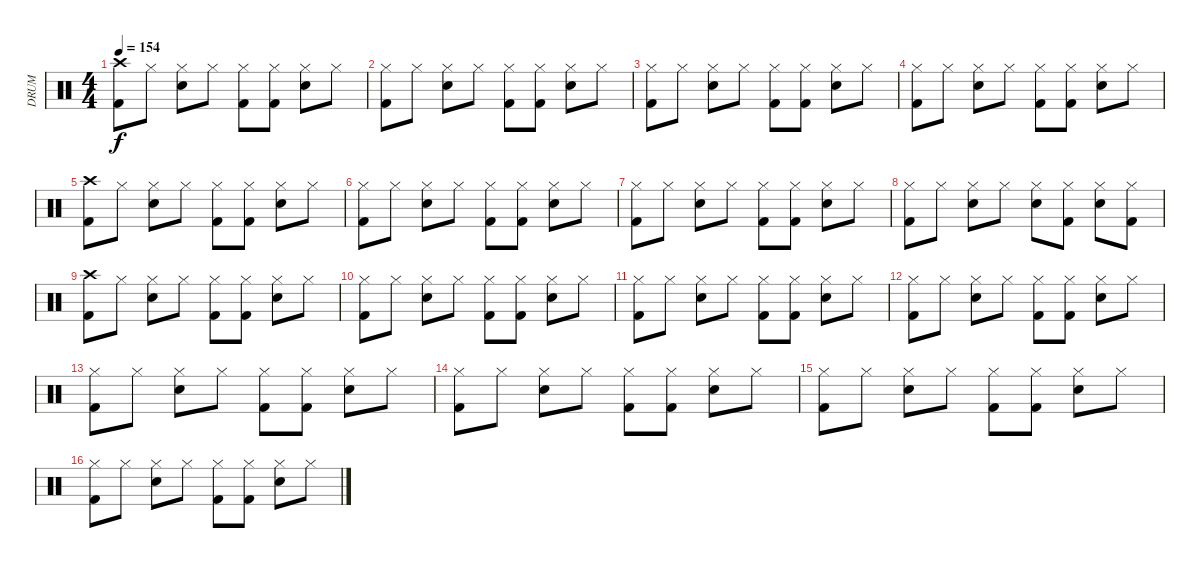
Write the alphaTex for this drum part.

\track ("DRUM" "DRUM") {instrument percussion}
\staff {score}
\articulation defaults
\ts (4 4)
\tempo 154
\clef neutral
\ks c
("Crash high (hit)" "Kick (hit) 2").8{dy f} "Hi-Hat (closed)".8 ("Hi-Hat (closed)" "Snare (hit) 2").8 "Hi-Hat (closed)".8 ("Hi-Hat (closed)" "Kick (hit) 2").8 ("Hi-Hat (closed)" "Kick (hit) 2").8 ("Hi-Hat (closed)" "Snare (hit) 2").8 "Hi-Hat (closed)".8 |
("Hi-Hat (closed)" "Kick (hit) 2").8 "Hi-Hat (closed)".8 ("Hi-Hat (closed)" "Snare (hit) 2").8 "Hi-Hat (closed)".8 ("Hi-Hat (closed)" "Kick (hit) 2").8 ("Hi-Hat (closed)" "Kick (hit) 2").8 ("Hi-Hat (closed)" "Snare (hit) 2").8 "Hi-Hat (closed)".8 |
("Hi-Hat (closed)" "Kick (hit) 2").8 "Hi-Hat (closed)".8 ("Hi-Hat (closed)" "Snare (hit) 2").8 "Hi-Hat (closed)".8 ("Hi-Hat (closed)" "Kick (hit) 2").8 ("Hi-Hat (closed)" "Kick (hit) 2").8 ("Hi-Hat (closed)" "Snare (hit) 2").8 "Hi-Hat (closed)".8 |
("Hi-Hat (closed)" "Kick (hit) 2").8 "Hi-Hat (closed)".8 ("Hi-Hat (closed)" "Snare (hit) 2").8 "Hi-Hat (closed)".8 ("Hi-Hat (closed)" "Kick (hit) 2").8 ("Hi-Hat (closed)" "Kick (hit) 2").8 ("Hi-Hat (closed)" "Snare (hit) 2").8 "Hi-Hat (closed)".8 |
("Crash high (hit)" "Kick (hit) 2").8 "Hi-Hat (closed)".8 ("Hi-Hat (closed)" "Snare (hit) 2").8 "Hi-Hat (closed)".8 ("Hi-Hat (closed)" "Kick (hit) 2").8 ("Hi-Hat (closed)" "Kick (hit) 2").8 ("Hi-Hat (closed)" "Snare (hit) 2").8 "Hi-Hat (closed)".8 |
("Hi-Hat (closed)" "Kick (hit) 2").8 "Hi-Hat (closed)".8 ("Hi-Hat (closed)" "Snare (hit) 2").8 "Hi-Hat (closed)".8 ("Hi-Hat (closed)" "Kick (hit) 2").8 ("Hi-Hat (closed)" "Kick (hit) 2").8 ("Hi-Hat (closed)" "Snare (hit) 2").8 "Hi-Hat (closed)".8 |
("Hi-Hat (closed)" "Kick (hit) 2").8 "Hi-Hat (closed)".8 ("Hi-Hat (closed)" "Snare (hit) 2").8 "Hi-Hat (closed)".8 ("Hi-Hat (closed)" "Kick (hit) 2").8 ("Hi-Hat (closed)" "Kick (hit) 2").8 ("Hi-Hat (closed)" "Snare (hit) 2").8 "Hi-Hat (closed)".8 |
("Hi-Hat (closed)" "Kick (hit) 2").8 "Hi-Hat (closed)".8 ("Hi-Hat (closed)" "Snare (hit) 2").8 "Hi-Hat (closed)".8 ("Hi-Hat (closed)" "Snare (hit) 2").8 ("Hi-Hat (closed)" "Kick (hit) 2").8 ("Hi-Hat (closed)" "Snare (hit) 2").8 ("Hi-Hat (closed)" "Kick (hit) 2").8 |
("Crash high (hit)" "Kick (hit) 2").8 "Hi-Hat (closed)".8 ("Hi-Hat (closed)" "Snare (hit) 2").8 "Hi-Hat (closed)".8 ("Hi-Hat (closed)" "Kick (hit) 2").8 ("Hi-Hat (closed)" "Kick (hit) 2").8 ("Hi-Hat (closed)" "Snare (hit) 2").8 "Hi-Hat (closed)".8 |
("Hi-Hat (closed)" "Kick (hit) 2").8 "Hi-Hat (closed)".8 ("Hi-Hat (closed)" "Snare (hit) 2").8 "Hi-Hat (closed)".8 ("Hi-Hat (closed)" "Kick (hit) 2").8 ("Hi-Hat (closed)" "Kick (hit) 2").8 ("Hi-Hat (closed)" "Snare (hit) 2").8 "Hi-Hat (closed)".8 |
("Hi-Hat (closed)" "Kick (hit) 2").8 "Hi-Hat (closed)".8 ("Hi-Hat (closed)" "Snare (hit) 2").8 "Hi-Hat (closed)".8 ("Hi-Hat (closed)" "Kick (hit) 2").8 ("Hi-Hat (closed)" "Kick (hit) 2").8 ("Hi-Hat (closed)" "Snare (hit) 2").8 "Hi-Hat (closed)".8 |
("Hi-Hat (closed)" "Kick (hit) 2").8 "Hi-Hat (closed)".8 ("Hi-Hat (closed)" "Snare (hit) 2").8 "Hi-Hat (closed)".8 ("Hi-Hat (closed)" "Kick (hit) 2").8 ("Hi-Hat (closed)" "Kick (hit) 2").8 ("Hi-Hat (closed)" "Snare (hit) 2").8 "Hi-Hat (closed)".8 |
("Hi-Hat (closed)" "Kick (hit) 2").8 "Hi-Hat (closed)".8 ("Hi-Hat (closed)" "Snare (hit) 2").8 "Hi-Hat (closed)".8 ("Hi-Hat (closed)" "Kick (hit) 2").8 ("Hi-Hat (closed)" "Kick (hit) 2").8 ("Hi-Hat (closed)" "Snare (hit) 2").8 "Hi-Hat (closed)".8 |
("Hi-Hat (closed)" "Kick (hit) 2").8 "Hi-Hat (closed)".8 ("Hi-Hat (closed)" "Snare (hit) 2").8 "Hi-Hat (closed)".8 ("Hi-Hat (closed)" "Kick (hit) 2").8 ("Hi-Hat (closed)" "Kick (hit) 2").8 ("Hi-Hat (closed)" "Snare (hit) 2").8 "Hi-Hat (closed)".8 |
("Hi-Hat (closed)" "Kick (hit) 2").8 "Hi-Hat (closed)".8 ("Hi-Hat (closed)" "Snare (hit) 2").8 "Hi-Hat (closed)".8 ("Hi-Hat (closed)" "Kick (hit) 2").8 ("Hi-Hat (closed)" "Kick (hit) 2").8 ("Hi-Hat (closed)" "Snare (hit) 2").8 "Hi-Hat (closed)".8 |
("Hi-Hat (closed)" "Kick (hit) 2").8 "Hi-Hat (closed)".8 ("Hi-Hat (closed)" "Snare (hit) 2").8 "Hi-Hat (closed)".8 ("Hi-Hat (closed)" "Kick (hit) 2").8 ("Hi-Hat (closed)" "Kick (hit) 2").8 ("Hi-Hat (closed)" "Snare (hit) 2").8 "Hi-Hat (closed)".8
